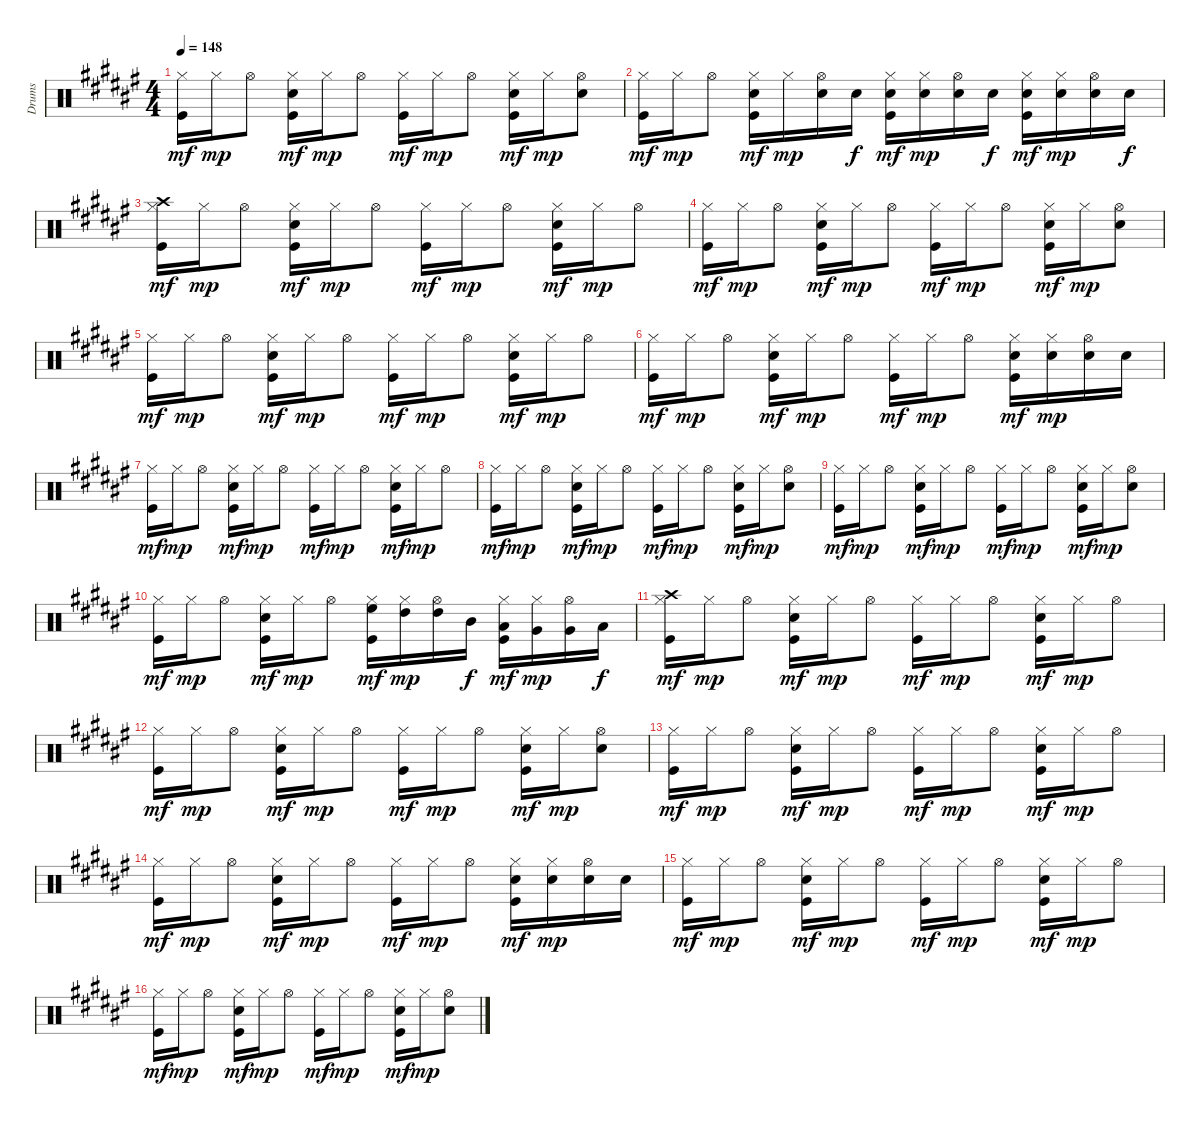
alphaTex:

\track ("Drums" "Drums") {instrument percussion}
\staff {score}
\articulation defaults
\ts (4 4)
\tempo 148
\clef neutral
\ks d#minor
("Kick (hit)" "Hi-Hat (closed)").16{dy mf} "Hi-Hat (closed)".16{dy mp} "Hi-Hat (open)".8 ("Electric Snare (hit)" "Kick (hit)" "Hi-Hat (closed)").16{dy mf} "Hi-Hat (closed)".16{dy mp} "Hi-Hat (open)".8 ("Kick (hit)" "Hi-Hat (closed)").16{dy mf} "Hi-Hat (closed)".16{dy mp} "Hi-Hat (open)".8 ("Electric Snare (hit)" "Kick (hit)" "Hi-Hat (closed)").16{dy mf} "Hi-Hat (closed)".16{dy mp} ("Snare (hit) 2" "Hi-Hat (open)").8 |
("Kick (hit)" "Hi-Hat (closed)").16{dy mf} "Hi-Hat (closed)".16{dy mp} "Hi-Hat (open)".8 ("Electric Snare (hit)" "Kick (hit)" "Hi-Hat (closed)").16{dy mf} "Hi-Hat (closed)".16{dy mp} ("Electric Snare (hit)" "Hi-Hat (open)").16 "Electric Snare (hit)".16{dy f} ("Kick (hit)" "Hi-Hat (closed)" "Snare (hit) 2").16{dy mf} ("Snare (hit) 2" "Hi-Hat (closed)").16{dy mp} ("Electric Snare (hit)" "Hi-Hat (open)").16 "Electric Snare (hit)".16{dy f} ("Kick (hit)" "Hi-Hat (closed)" "Snare (hit) 2").16{dy mf} ("Snare (hit) 2" "Hi-Hat (closed)").16{dy mp} ("Electric Snare (hit)" "Hi-Hat (open)").16 "Electric Snare (hit)".16{dy f} |
("Crash high (hit)" "Kick (hit)" "Hi-Hat (closed)").16{dy mf} "Hi-Hat (closed)".16{dy mp} "Hi-Hat (open)".8 ("Electric Snare (hit)" "Kick (hit)" "Hi-Hat (closed)").16{dy mf} "Hi-Hat (closed)".16{dy mp} "Hi-Hat (open)".8 ("Kick (hit)" "Hi-Hat (closed)").16{dy mf} "Hi-Hat (closed)".16{dy mp} "Hi-Hat (open)".8 ("Electric Snare (hit)" "Kick (hit)" "Hi-Hat (closed)").16{dy mf} "Hi-Hat (closed)".16{dy mp} "Hi-Hat (open)".8 |
("Kick (hit)" "Hi-Hat (closed)").16{dy mf} "Hi-Hat (closed)".16{dy mp} "Hi-Hat (open)".8 ("Electric Snare (hit)" "Kick (hit)" "Hi-Hat (closed)").16{dy mf} "Hi-Hat (closed)".16{dy mp} "Hi-Hat (open)".8 ("Kick (hit)" "Hi-Hat (closed)").16{dy mf} "Hi-Hat (closed)".16{dy mp} "Hi-Hat (open)".8 ("Electric Snare (hit)" "Kick (hit)" "Hi-Hat (closed)").16{dy mf} "Hi-Hat (closed)".16{dy mp} ("Snare (hit) 2" "Hi-Hat (open)").8 |
("Kick (hit)" "Hi-Hat (closed)").16{dy mf} "Hi-Hat (closed)".16{dy mp} "Hi-Hat (open)".8 ("Electric Snare (hit)" "Kick (hit)" "Hi-Hat (closed)").16{dy mf} "Hi-Hat (closed)".16{dy mp} "Hi-Hat (open)".8 ("Kick (hit)" "Hi-Hat (closed)").16{dy mf} "Hi-Hat (closed)".16{dy mp} "Hi-Hat (open)".8 ("Electric Snare (hit)" "Kick (hit)" "Hi-Hat (closed)").16{dy mf} "Hi-Hat (closed)".16{dy mp} "Hi-Hat (open)".8 |
("Kick (hit)" "Hi-Hat (closed)").16{dy mf} "Hi-Hat (closed)".16{dy mp} "Hi-Hat (open)".8 ("Electric Snare (hit)" "Kick (hit)" "Hi-Hat (closed)").16{dy mf} "Hi-Hat (closed)".16{dy mp} "Hi-Hat (open)".8 ("Kick (hit)" "Hi-Hat (closed)").16{dy mf} "Hi-Hat (closed)".16{dy mp} "Hi-Hat (open)".8 ("Snare (hit) 2" "Kick (hit)" "Hi-Hat (closed)").16{dy mf} ("Snare (hit) 2" "Hi-Hat (closed)").16{dy mp} ("Snare (hit) 2" "Hi-Hat (open)").16 "Snare (hit) 2".16 |
("Kick (hit)" "Hi-Hat (closed)").16{dy mf} "Hi-Hat (closed)".16{dy mp} "Hi-Hat (open)".8 ("Electric Snare (hit)" "Kick (hit)" "Hi-Hat (closed)").16{dy mf} "Hi-Hat (closed)".16{dy mp} "Hi-Hat (open)".8 ("Kick (hit)" "Hi-Hat (closed)").16{dy mf} "Hi-Hat (closed)".16{dy mp} "Hi-Hat (open)".8 ("Electric Snare (hit)" "Kick (hit)" "Hi-Hat (closed)").16{dy mf} "Hi-Hat (closed)".16{dy mp} "Hi-Hat (open)".8 |
("Kick (hit)" "Hi-Hat (closed)").16{dy mf} "Hi-Hat (closed)".16{dy mp} "Hi-Hat (open)".8 ("Electric Snare (hit)" "Kick (hit)" "Hi-Hat (closed)").16{dy mf} "Hi-Hat (closed)".16{dy mp} "Hi-Hat (open)".8 ("Kick (hit)" "Hi-Hat (closed)").16{dy mf} "Hi-Hat (closed)".16{dy mp} "Hi-Hat (open)".8 ("Electric Snare (hit)" "Kick (hit)" "Hi-Hat (closed)").16{dy mf} "Hi-Hat (closed)".16{dy mp} ("Snare (hit) 2" "Hi-Hat (open)").8 |
("Kick (hit)" "Hi-Hat (closed)").16{dy mf} "Hi-Hat (closed)".16{dy mp} "Hi-Hat (open)".8 ("Electric Snare (hit)" "Kick (hit)" "Hi-Hat (closed)").16{dy mf} "Hi-Hat (closed)".16{dy mp} "Hi-Hat (open)".8 ("Kick (hit)" "Hi-Hat (closed)").16{dy mf} "Hi-Hat (closed)".16{dy mp} "Hi-Hat (open)".8 ("Electric Snare (hit)" "Kick (hit)" "Hi-Hat (closed)").16{dy mf} "Hi-Hat (closed)".16{dy mp} ("Snare (hit) 2" "Hi-Hat (open)").8 |
("Kick (hit)" "Hi-Hat (closed)").16{dy mf} "Hi-Hat (closed)".16{dy mp} "Hi-Hat (open)".8 ("Electric Snare (hit)" "Kick (hit)" "Hi-Hat (closed)").16{dy mf} "Hi-Hat (closed)".16{dy mp} "Hi-Hat (open)".8 ("High Floor Tom (hit)" "Kick (hit)" "Hi-Hat (closed)").16{dy mf} ("High Tom (hit)" "Hi-Hat (closed)").16{dy mp} ("High Tom (hit)" "Hi-Hat (open)").16 "Mid Tom (hit)".16{dy f} ("Kick (hit)" "Hi-Hat (closed)" "Low Tom (hit)").16{dy mf} ("Very Low Tom (hit)" "Hi-Hat (closed)").16{dy mp} ("Very Low Tom (hit)" "Hi-Hat (open)").16 "Low Floor Tom (hit)".16{dy f} |
("Crash high (hit)" "Kick (hit)" "Hi-Hat (closed)").16{dy mf} "Hi-Hat (closed)".16{dy mp} "Hi-Hat (open)".8 ("Electric Snare (hit)" "Kick (hit)" "Hi-Hat (closed)").16{dy mf} "Hi-Hat (closed)".16{dy mp} "Hi-Hat (open)".8 ("Kick (hit)" "Hi-Hat (closed)").16{dy mf} "Hi-Hat (closed)".16{dy mp} "Hi-Hat (open)".8 ("Electric Snare (hit)" "Kick (hit)" "Hi-Hat (closed)").16{dy mf} "Hi-Hat (closed)".16{dy mp} "Hi-Hat (open)".8 |
("Kick (hit)" "Hi-Hat (closed)").16{dy mf} "Hi-Hat (closed)".16{dy mp} "Hi-Hat (open)".8 ("Electric Snare (hit)" "Kick (hit)" "Hi-Hat (closed)").16{dy mf} "Hi-Hat (closed)".16{dy mp} "Hi-Hat (open)".8 ("Kick (hit)" "Hi-Hat (closed)").16{dy mf} "Hi-Hat (closed)".16{dy mp} "Hi-Hat (open)".8 ("Electric Snare (hit)" "Kick (hit)" "Hi-Hat (closed)").16{dy mf} "Hi-Hat (closed)".16{dy mp} ("Snare (hit) 2" "Hi-Hat (open)").8 |
("Kick (hit)" "Hi-Hat (closed)").16{dy mf} "Hi-Hat (closed)".16{dy mp} "Hi-Hat (open)".8 ("Electric Snare (hit)" "Kick (hit)" "Hi-Hat (closed)").16{dy mf} "Hi-Hat (closed)".16{dy mp} "Hi-Hat (open)".8 ("Kick (hit)" "Hi-Hat (closed)").16{dy mf} "Hi-Hat (closed)".16{dy mp} "Hi-Hat (open)".8 ("Electric Snare (hit)" "Kick (hit)" "Hi-Hat (closed)").16{dy mf} "Hi-Hat (closed)".16{dy mp} "Hi-Hat (open)".8 |
("Kick (hit)" "Hi-Hat (closed)").16{dy mf} "Hi-Hat (closed)".16{dy mp} "Hi-Hat (open)".8 ("Electric Snare (hit)" "Kick (hit)" "Hi-Hat (closed)").16{dy mf} "Hi-Hat (closed)".16{dy mp} "Hi-Hat (open)".8 ("Kick (hit)" "Hi-Hat (closed)").16{dy mf} "Hi-Hat (closed)".16{dy mp} "Hi-Hat (open)".8 ("Snare (hit) 2" "Kick (hit)" "Hi-Hat (closed)").16{dy mf} ("Snare (hit) 2" "Hi-Hat (closed)").16{dy mp} ("Snare (hit) 2" "Hi-Hat (open)").16 "Snare (hit) 2".16 |
("Kick (hit)" "Hi-Hat (closed)").16{dy mf} "Hi-Hat (closed)".16{dy mp} "Hi-Hat (open)".8 ("Electric Snare (hit)" "Kick (hit)" "Hi-Hat (closed)").16{dy mf} "Hi-Hat (closed)".16{dy mp} "Hi-Hat (open)".8 ("Kick (hit)" "Hi-Hat (closed)").16{dy mf} "Hi-Hat (closed)".16{dy mp} "Hi-Hat (open)".8 ("Electric Snare (hit)" "Kick (hit)" "Hi-Hat (closed)").16{dy mf} "Hi-Hat (closed)".16{dy mp} "Hi-Hat (open)".8 |
("Kick (hit)" "Hi-Hat (closed)").16{dy mf} "Hi-Hat (closed)".16{dy mp} "Hi-Hat (open)".8 ("Electric Snare (hit)" "Kick (hit)" "Hi-Hat (closed)").16{dy mf} "Hi-Hat (closed)".16{dy mp} "Hi-Hat (open)".8 ("Kick (hit)" "Hi-Hat (closed)").16{dy mf} "Hi-Hat (closed)".16{dy mp} "Hi-Hat (open)".8 ("Electric Snare (hit)" "Kick (hit)" "Hi-Hat (closed)").16{dy mf} "Hi-Hat (closed)".16{dy mp} ("Snare (hit) 2" "Hi-Hat (open)").8
